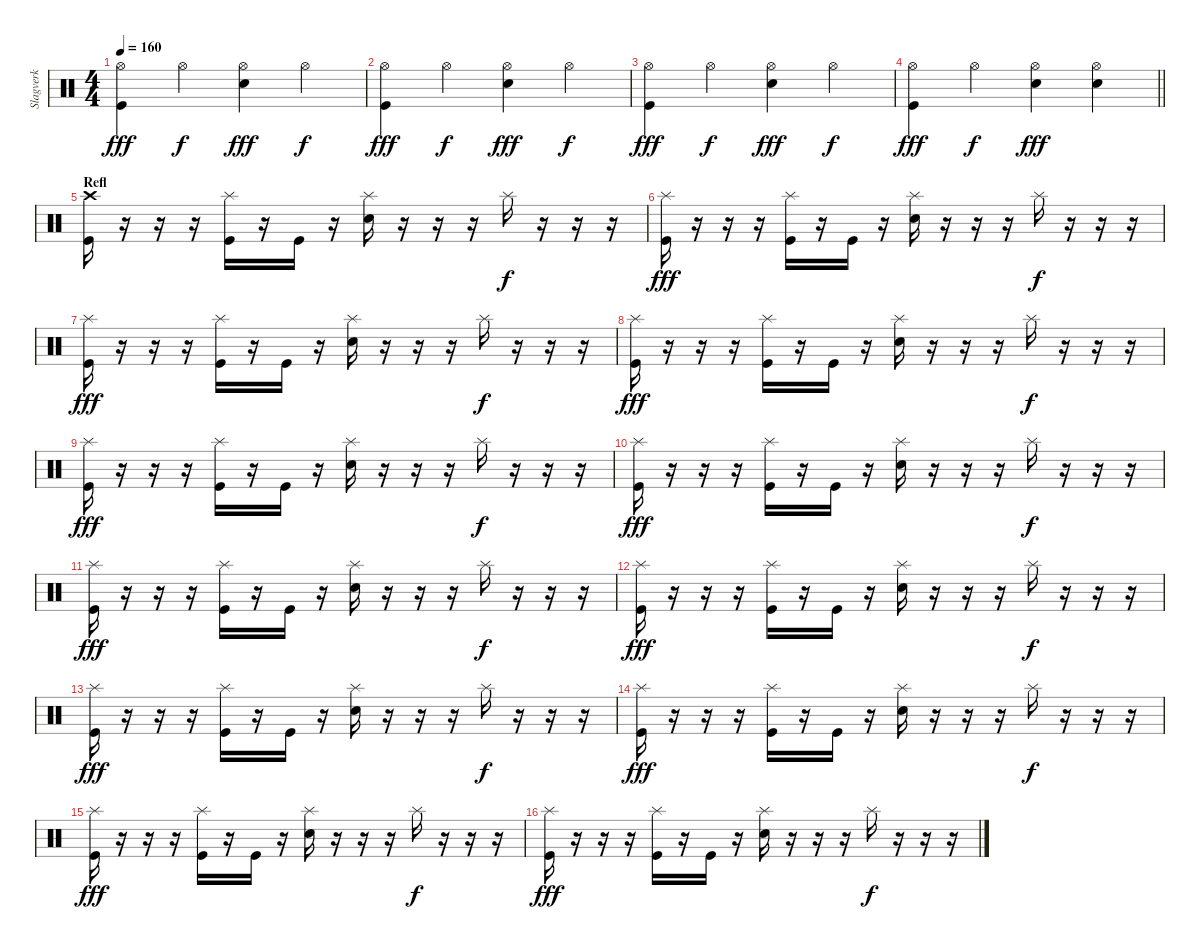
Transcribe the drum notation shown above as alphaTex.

\track ("Slagverk" "Slagverk") {instrument percussion}
\staff {score}
\articulation defaults
\ts (4 4)
\tempo 160
\clef neutral
\ks c
("Hi-Hat (open)" "Kick (hit)").4{dy fff} "Hi-Hat (open)".4{dy f} ("Hi-Hat (open)" "Electric Snare (hit)").4{dy fff} "Hi-Hat (open)".4{dy f} |
("Hi-Hat (open)" "Kick (hit)").4{dy fff} "Hi-Hat (open)".4{dy f} ("Hi-Hat (open)" "Electric Snare (hit)").4{dy fff} "Hi-Hat (open)".4{dy f} |
("Hi-Hat (open)" "Kick (hit)").4{dy fff} "Hi-Hat (open)".4{dy f} ("Hi-Hat (open)" "Electric Snare (hit)").4{dy fff} "Hi-Hat (open)".4{dy f} |
\barLineRight lightlight
("Hi-Hat (open)" "Kick (hit)").4{dy fff} "Hi-Hat (open)".4{dy f} ("Hi-Hat (open)" "Electric Snare (hit)").4{dy fff} ("Hi-Hat (open)" "Electric Snare (hit)").4 |
\section ("" "Refl")
("Crash high (hit)" "Kick (hit)").16 r.16 r.16 r.16 ("Splash (hit)" "Kick (hit)").16 r.16 "Kick (hit)".16 r.16 ("Splash (hit)" "Electric Snare (hit)").16 r.16 r.16 r.16 "Splash (hit)".16{dy f} r.16 r.16 r.16 |
("Splash (hit)" "Kick (hit)").16{dy fff} r.16 r.16 r.16 ("Splash (hit)" "Kick (hit)").16 r.16 "Kick (hit)".16 r.16 ("Splash (hit)" "Electric Snare (hit)").16 r.16 r.16 r.16 "Splash (hit)".16{dy f} r.16 r.16 r.16 |
("Splash (hit)" "Kick (hit)").16{dy fff} r.16 r.16 r.16 ("Splash (hit)" "Kick (hit)").16 r.16 "Kick (hit)".16 r.16 ("Splash (hit)" "Electric Snare (hit)").16 r.16 r.16 r.16 "Splash (hit)".16{dy f} r.16 r.16 r.16 |
("Splash (hit)" "Kick (hit)").16{dy fff} r.16 r.16 r.16 ("Splash (hit)" "Kick (hit)").16 r.16 "Kick (hit)".16 r.16 ("Splash (hit)" "Electric Snare (hit)").16 r.16 r.16 r.16 "Splash (hit)".16{dy f} r.16 r.16 r.16 |
("Splash (hit)" "Kick (hit)").16{dy fff} r.16 r.16 r.16 ("Splash (hit)" "Kick (hit)").16 r.16 "Kick (hit)".16 r.16 ("Splash (hit)" "Electric Snare (hit)").16 r.16 r.16 r.16 "Splash (hit)".16{dy f} r.16 r.16 r.16 |
("Splash (hit)" "Kick (hit)").16{dy fff} r.16 r.16 r.16 ("Splash (hit)" "Kick (hit)").16 r.16 "Kick (hit)".16 r.16 ("Splash (hit)" "Electric Snare (hit)").16 r.16 r.16 r.16 "Splash (hit)".16{dy f} r.16 r.16 r.16 |
("Splash (hit)" "Kick (hit)").16{dy fff} r.16 r.16 r.16 ("Splash (hit)" "Kick (hit)").16 r.16 "Kick (hit)".16 r.16 ("Splash (hit)" "Electric Snare (hit)").16 r.16 r.16 r.16 "Splash (hit)".16{dy f} r.16 r.16 r.16 |
("Splash (hit)" "Kick (hit)").16{dy fff} r.16 r.16 r.16 ("Splash (hit)" "Kick (hit)").16 r.16 "Kick (hit)".16 r.16 ("Splash (hit)" "Electric Snare (hit)").16 r.16 r.16 r.16 "Splash (hit)".16{dy f} r.16 r.16 r.16 |
("Splash (hit)" "Kick (hit)").16{dy fff} r.16 r.16 r.16 ("Splash (hit)" "Kick (hit)").16 r.16 "Kick (hit)".16 r.16 ("Splash (hit)" "Electric Snare (hit)").16 r.16 r.16 r.16 "Splash (hit)".16{dy f} r.16 r.16 r.16 |
("Splash (hit)" "Kick (hit)").16{dy fff} r.16 r.16 r.16 ("Splash (hit)" "Kick (hit)").16 r.16 "Kick (hit)".16 r.16 ("Splash (hit)" "Electric Snare (hit)").16 r.16 r.16 r.16 "Splash (hit)".16{dy f} r.16 r.16 r.16 |
("Splash (hit)" "Kick (hit)").16{dy fff} r.16 r.16 r.16 ("Splash (hit)" "Kick (hit)").16 r.16 "Kick (hit)".16 r.16 ("Splash (hit)" "Electric Snare (hit)").16 r.16 r.16 r.16 "Splash (hit)".16{dy f} r.16 r.16 r.16 |
("Splash (hit)" "Kick (hit)").16{dy fff} r.16 r.16 r.16 ("Splash (hit)" "Kick (hit)").16 r.16 "Kick (hit)".16 r.16 ("Splash (hit)" "Electric Snare (hit)").16 r.16 r.16 r.16 "Splash (hit)".16{dy f} r.16 r.16 r.16
